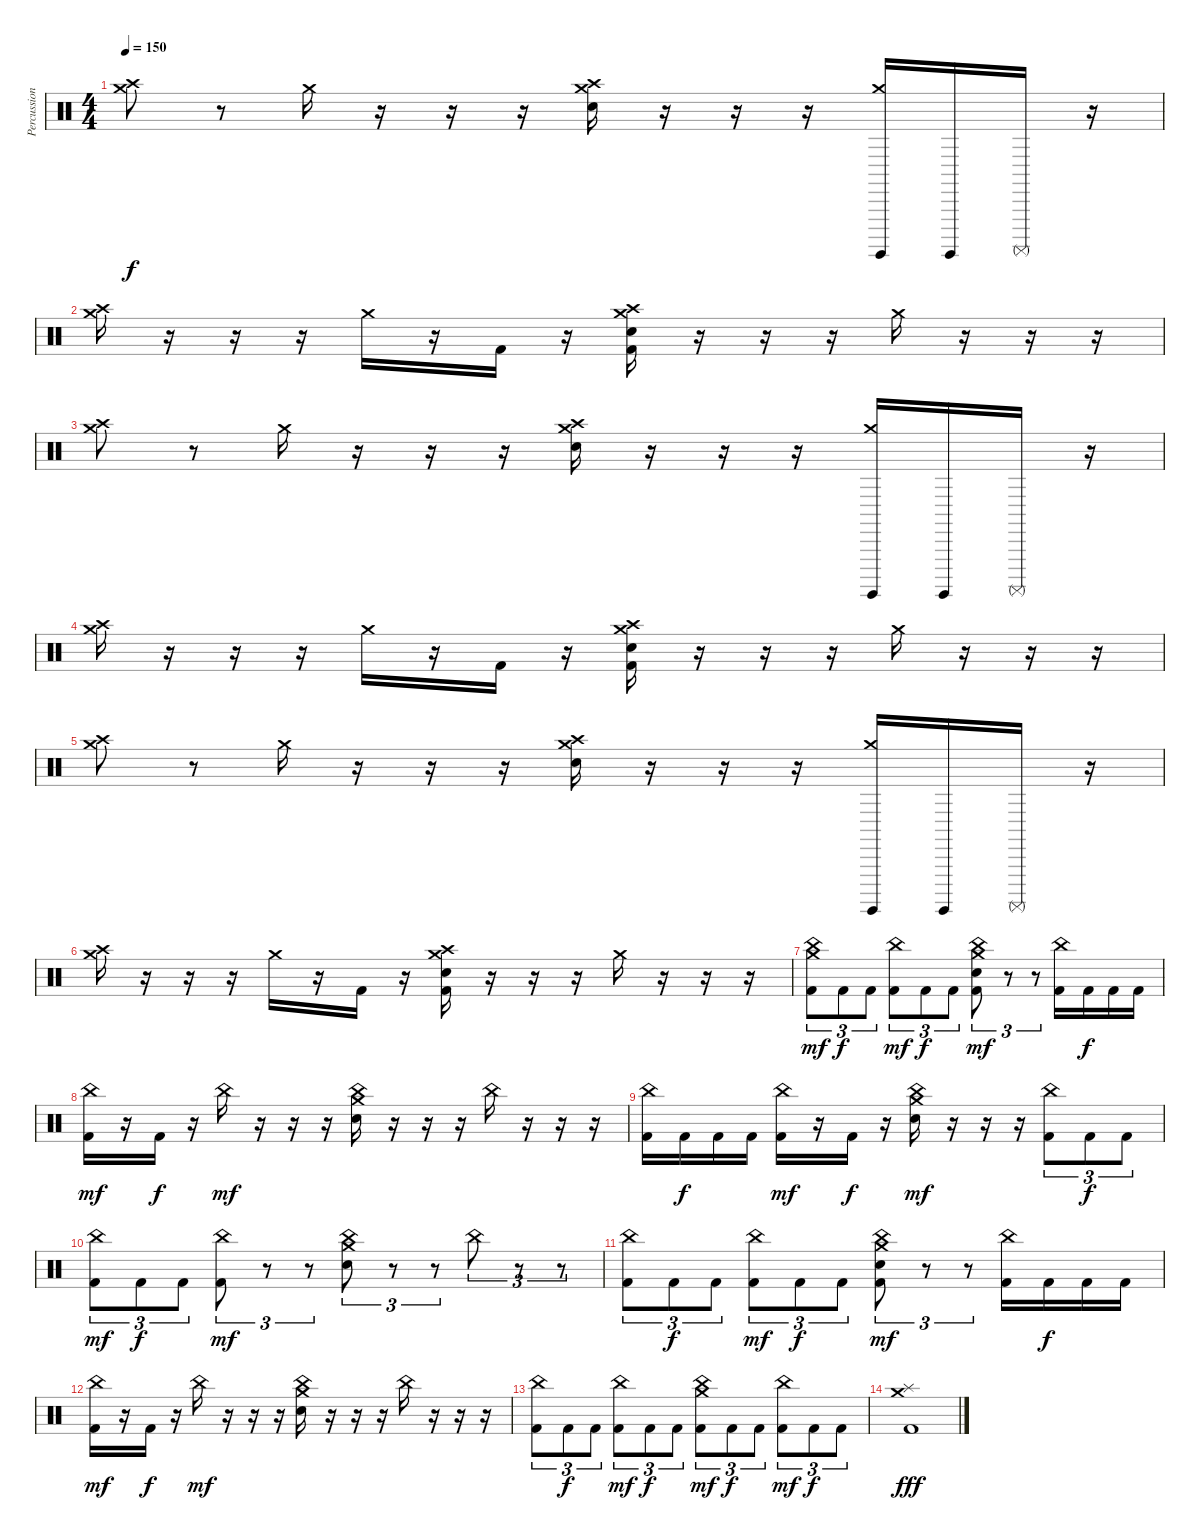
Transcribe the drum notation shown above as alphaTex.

\track ("Percussions" "Percussion") {instrument percussion}
\staff {score}
\articulation defaults
\ts (4 4)
\tempo 150
\clef neutral
\ks c
("Crash high (hit)" "Crash medium (hit)").8{dy f} r.8 "Crash medium (hit)".16 r.16 r.16 r.16 ("Crash high (hit)" "Crash medium (hit)" "Electric Snare (hit)").16 r.16 r.16 r.16 ("Crash medium (hit)" "Surdo (hit)").16 "Surdo (hit)".16 "Surdo (mute)".16 r.16 |
("Crash high (hit)" "Crash medium (hit)").16 r.16 r.16 r.16 "Crash medium (hit)".16 r.16 "Kick (hit) 2".16 r.16 ("Crash high (hit)" "Crash medium (hit)" "Electric Snare (hit)" "Kick (hit) 2").16 r.16 r.16 r.16 "Crash medium (hit)".16 r.16 r.16 r.16 |
("Crash high (hit)" "Crash medium (hit)").8 r.8 "Crash medium (hit)".16 r.16 r.16 r.16 ("Crash high (hit)" "Crash medium (hit)" "Electric Snare (hit)").16 r.16 r.16 r.16 ("Crash medium (hit)" "Surdo (hit)").16 "Surdo (hit)".16 "Surdo (mute)".16 r.16 |
("Crash high (hit)" "Crash medium (hit)").16 r.16 r.16 r.16 "Crash medium (hit)".16 r.16 "Kick (hit) 2".16 r.16 ("Crash high (hit)" "Crash medium (hit)" "Electric Snare (hit)" "Kick (hit) 2").16 r.16 r.16 r.16 "Crash medium (hit)".16 r.16 r.16 r.16 |
("Crash high (hit)" "Crash medium (hit)").8 r.8 "Crash medium (hit)".16 r.16 r.16 r.16 ("Crash high (hit)" "Crash medium (hit)" "Electric Snare (hit)").16 r.16 r.16 r.16 ("Crash medium (hit)" "Surdo (hit)").16 "Surdo (hit)".16 "Surdo (mute)".16 r.16 |
("Crash high (hit)" "Crash medium (hit)").16 r.16 r.16 r.16 "Crash medium (hit)".16 r.16 "Kick (hit) 2".16 r.16 ("Crash high (hit)" "Crash medium (hit)" "Electric Snare (hit)" "Kick (hit) 2").16 r.16 r.16 r.16 "Crash medium (hit)".16 r.16 r.16 r.16 |
("Crash medium (hit)" "China (hit)" "Kick (hit) 2").8{tu (3 2) dy mf} "Kick (hit) 2".8{tu (3 2) dy f} "Kick (hit) 2".8{tu (3 2)} ("China (hit)" "Kick (hit) 2").8{tu (3 2) dy mf} "Kick (hit) 2".8{tu (3 2) dy f} "Kick (hit) 2".8{tu (3 2)} ("Crash medium (hit)" "China (hit)" "Electric Snare (hit)" "Kick (hit) 2").8{tu (3 2) dy mf} r.8{tu (3 2)} r.8{tu (3 2)} ("China (hit)" "Kick (hit) 2").16 "Kick (hit) 2".16{dy f} "Kick (hit) 2".16 "Kick (hit) 2".16 |
("China (hit)" "Kick (hit) 2").16{dy mf} r.16 "Kick (hit) 2".16{dy f} r.16 "China (hit)".16{dy mf} r.16 r.16 r.16 ("Crash medium (hit)" "China (hit)" "Electric Snare (hit)").16 r.16 r.16 r.16 "China (hit)".16 r.16 r.16 r.16 |
("China (hit)" "Kick (hit) 2").16 "Kick (hit) 2".16{dy f} "Kick (hit) 2".16 "Kick (hit) 2".16 ("China (hit)" "Kick (hit) 2").16{dy mf} r.16 "Kick (hit) 2".16{dy f} r.16 ("Crash medium (hit)" "China (hit)" "Electric Snare (hit)").16{dy mf} r.16 r.16 r.16 ("China (hit)" "Kick (hit) 2").8{tu (3 2)} "Kick (hit) 2".8{tu (3 2) dy f} "Kick (hit) 2".8{tu (3 2)} |
("China (hit)" "Kick (hit) 2").8{tu (3 2) dy mf} "Kick (hit) 2".8{tu (3 2) dy f} "Kick (hit) 2".8{tu (3 2)} ("China (hit)" "Kick (hit) 2").8{tu (3 2) dy mf} r.8{tu (3 2)} r.8{tu (3 2)} ("Crash medium (hit)" "China (hit)" "Electric Snare (hit)").8{tu (3 2)} r.8{tu (3 2)} r.8{tu (3 2)} "China (hit)".8{tu (3 2)} r.8{tu (3 2)} r.8{tu (3 2)} |
("China (hit)" "Kick (hit) 2").8{tu (3 2)} "Kick (hit) 2".8{tu (3 2) dy f} "Kick (hit) 2".8{tu (3 2)} ("China (hit)" "Kick (hit) 2").8{tu (3 2) dy mf} "Kick (hit) 2".8{tu (3 2) dy f} "Kick (hit) 2".8{tu (3 2)} ("Crash medium (hit)" "China (hit)" "Electric Snare (hit)" "Kick (hit) 2").8{tu (3 2) dy mf} r.8{tu (3 2)} r.8{tu (3 2)} ("China (hit)" "Kick (hit) 2").16 "Kick (hit) 2".16{dy f} "Kick (hit) 2".16 "Kick (hit) 2".16 |
("China (hit)" "Kick (hit) 2").16{dy mf} r.16 "Kick (hit) 2".16{dy f} r.16 "China (hit)".16{dy mf} r.16 r.16 r.16 ("Crash medium (hit)" "China (hit)" "Electric Snare (hit)").16 r.16 r.16 r.16 "China (hit)".16 r.16 r.16 r.16 |
("China (hit)" "Kick (hit) 2").8{tu (3 2)} "Kick (hit) 2".8{tu (3 2) dy f} "Kick (hit) 2".8{tu (3 2)} ("China (hit)" "Kick (hit) 2").8{tu (3 2) dy mf} "Kick (hit) 2".8{tu (3 2) dy f} "Kick (hit) 2".8{tu (3 2)} ("Crash medium (hit)" "China (hit)" "Kick (hit) 2").8{tu (3 2) dy mf} "Kick (hit) 2".8{tu (3 2) dy f} "Kick (hit) 2".8{tu (3 2)} ("China (hit)" "Kick (hit) 2").8{tu (3 2) dy mf} "Kick (hit) 2".8{tu (3 2) dy f} "Kick (hit) 2".8{tu (3 2)} |
("Crash medium (hit)" "Splash (hit)" "Kick (hit) 2").1{dy fff}
